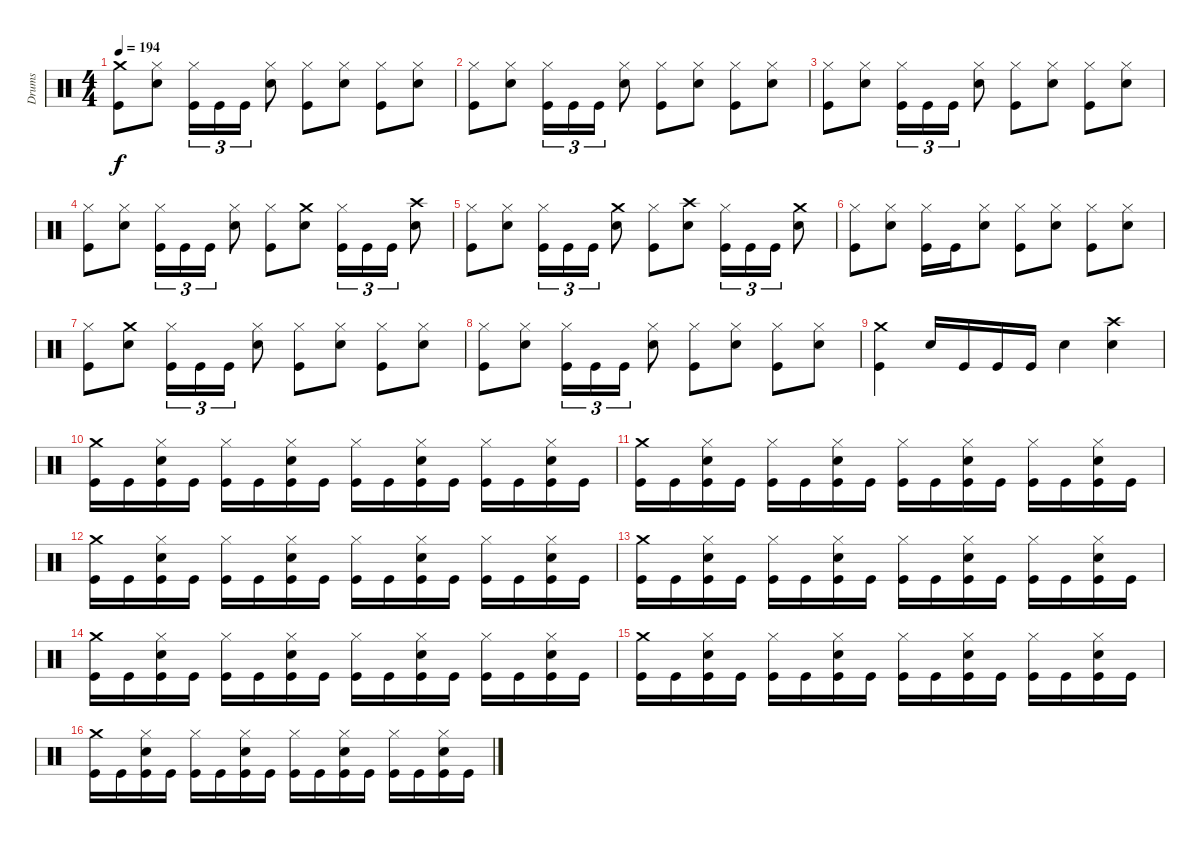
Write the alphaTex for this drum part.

\track ("Drums" "Drums") {instrument percussion}
\staff {score}
\articulation defaults
\ts (4 4)
\tempo 194
\clef neutral
\ks c
("Crash medium (hit)" "Kick (hit)").8{dy f} ("Hi-Hat (closed)" "Snare (hit) 2").8 ("Hi-Hat (closed)" "Kick (hit)").16{tu (3 2)} "Kick (hit)".16{tu (3 2)} "Kick (hit)".16{tu (3 2)} ("Hi-Hat (closed)" "Snare (hit) 2").8 ("Hi-Hat (closed)" "Kick (hit)").8 ("Hi-Hat (closed)" "Snare (hit) 2").8 ("Hi-Hat (closed)" "Kick (hit)").8 ("Hi-Hat (closed)" "Snare (hit) 2").8 |
("Hi-Hat (closed)" "Kick (hit)").8 ("Hi-Hat (closed)" "Snare (hit) 2").8 ("Hi-Hat (closed)" "Kick (hit)").16{tu (3 2)} "Kick (hit)".16{tu (3 2)} "Kick (hit)".16{tu (3 2)} ("Hi-Hat (closed)" "Snare (hit) 2").8 ("Hi-Hat (closed)" "Kick (hit)").8 ("Hi-Hat (closed)" "Snare (hit) 2").8 ("Hi-Hat (closed)" "Kick (hit)").8 ("Hi-Hat (closed)" "Snare (hit) 2").8 |
("Hi-Hat (closed)" "Kick (hit)").8 ("Hi-Hat (closed)" "Snare (hit) 2").8 ("Hi-Hat (closed)" "Kick (hit)").16{tu (3 2)} "Kick (hit)".16{tu (3 2)} "Kick (hit)".16{tu (3 2)} ("Hi-Hat (closed)" "Snare (hit) 2").8 ("Hi-Hat (closed)" "Kick (hit)").8 ("Hi-Hat (closed)" "Snare (hit) 2").8 ("Hi-Hat (closed)" "Kick (hit)").8 ("Hi-Hat (closed)" "Snare (hit) 2").8 |
("Hi-Hat (closed)" "Kick (hit)").8 ("Hi-Hat (closed)" "Snare (hit) 2").8 ("Hi-Hat (closed)" "Kick (hit)").16{tu (3 2)} "Kick (hit)".16{tu (3 2)} "Kick (hit)".16{tu (3 2)} ("Hi-Hat (closed)" "Snare (hit) 2").8 ("Hi-Hat (closed)" "Kick (hit)").8 ("Crash medium (hit)" "Snare (hit) 2").8 ("Hi-Hat (closed)" "Kick (hit)").16{tu (3 2)} "Kick (hit)".16{tu (3 2)} "Kick (hit)".16{tu (3 2)} ("Crash high (hit)" "Snare (hit) 2").8 |
("Hi-Hat (closed)" "Kick (hit)").8 ("Hi-Hat (closed)" "Snare (hit) 2").8 ("Hi-Hat (closed)" "Kick (hit)").16{tu (3 2)} "Kick (hit)".16{tu (3 2)} "Kick (hit)".16{tu (3 2)} ("Crash medium (hit)" "Snare (hit) 2").8 ("Hi-Hat (closed)" "Kick (hit)").8 ("Crash high (hit)" "Snare (hit) 2").8 ("Hi-Hat (closed)" "Kick (hit)").16{tu (3 2)} "Kick (hit)".16{tu (3 2)} "Kick (hit)".16{tu (3 2)} ("Crash medium (hit)" "Snare (hit) 2").8 |
("Hi-Hat (closed)" "Kick (hit)").8 ("Hi-Hat (closed)" "Snare (hit) 2").8 ("Hi-Hat (closed)" "Kick (hit)").16 "Kick (hit)".16 ("Hi-Hat (closed)" "Snare (hit) 2").8 ("Hi-Hat (closed)" "Kick (hit)").8 ("Hi-Hat (closed)" "Snare (hit) 2").8 ("Hi-Hat (closed)" "Kick (hit)").8 ("Hi-Hat (closed)" "Snare (hit) 2").8 |
("Hi-Hat (closed)" "Kick (hit)").8 ("Crash medium (hit)" "Snare (hit) 2").8 ("Hi-Hat (closed)" "Kick (hit)").16{tu (3 2)} "Kick (hit)".16{tu (3 2)} "Kick (hit)".16{tu (3 2)} ("Hi-Hat (closed)" "Snare (hit) 2").8 ("Hi-Hat (closed)" "Kick (hit)").8 ("Hi-Hat (closed)" "Snare (hit) 2").8 ("Hi-Hat (closed)" "Kick (hit)").8 ("Hi-Hat (closed)" "Snare (hit) 2").8 |
("Hi-Hat (closed)" "Kick (hit)").8 ("Hi-Hat (closed)" "Snare (hit) 2").8 ("Hi-Hat (closed)" "Kick (hit)").16{tu (3 2)} "Kick (hit)".16{tu (3 2)} "Kick (hit)".16{tu (3 2)} ("Hi-Hat (closed)" "Snare (hit) 2").8 ("Hi-Hat (closed)" "Kick (hit)").8 ("Hi-Hat (closed)" "Snare (hit) 2").8 ("Hi-Hat (closed)" "Kick (hit)").8 ("Hi-Hat (closed)" "Snare (hit) 2").8 |
("Crash medium (hit)" "Kick (hit)").4 "Snare (hit) 2".16 "Kick (hit)".16 "Kick (hit)".16 "Kick (hit)".16 "Snare (hit) 2".4 ("Crash high (hit)" "Snare (hit) 2").4 |
("Crash medium (hit)" "Kick (hit)").16 "Kick (hit)".16 ("Hi-Hat (closed)" "Snare (hit) 2" "Kick (hit)").16 "Kick (hit)".16 ("Hi-Hat (closed)" "Kick (hit)").16 "Kick (hit)".16 ("Hi-Hat (closed)" "Snare (hit) 2" "Kick (hit)").16 "Kick (hit)".16 ("Hi-Hat (closed)" "Kick (hit)").16 "Kick (hit)".16 ("Hi-Hat (closed)" "Snare (hit) 2" "Kick (hit)").16 "Kick (hit)".16 ("Hi-Hat (closed)" "Kick (hit)").16 "Kick (hit)".16 ("Hi-Hat (closed)" "Snare (hit) 2" "Kick (hit)").16 "Kick (hit)".16 |
("Crash medium (hit)" "Kick (hit)").16 "Kick (hit)".16 ("Hi-Hat (closed)" "Snare (hit) 2" "Kick (hit)").16 "Kick (hit)".16 ("Hi-Hat (closed)" "Kick (hit)").16 "Kick (hit)".16 ("Hi-Hat (closed)" "Snare (hit) 2" "Kick (hit)").16 "Kick (hit)".16 ("Hi-Hat (closed)" "Kick (hit)").16 "Kick (hit)".16 ("Hi-Hat (closed)" "Snare (hit) 2" "Kick (hit)").16 "Kick (hit)".16 ("Hi-Hat (closed)" "Kick (hit)").16 "Kick (hit)".16 ("Hi-Hat (closed)" "Snare (hit) 2" "Kick (hit)").16 "Kick (hit)".16 |
("Crash medium (hit)" "Kick (hit)").16 "Kick (hit)".16 ("Hi-Hat (closed)" "Snare (hit) 2" "Kick (hit)").16 "Kick (hit)".16 ("Hi-Hat (closed)" "Kick (hit)").16 "Kick (hit)".16 ("Hi-Hat (closed)" "Snare (hit) 2" "Kick (hit)").16 "Kick (hit)".16 ("Hi-Hat (closed)" "Kick (hit)").16 "Kick (hit)".16 ("Hi-Hat (closed)" "Snare (hit) 2" "Kick (hit)").16 "Kick (hit)".16 ("Hi-Hat (closed)" "Kick (hit)").16 "Kick (hit)".16 ("Hi-Hat (closed)" "Snare (hit) 2" "Kick (hit)").16 "Kick (hit)".16 |
("Crash medium (hit)" "Kick (hit)").16 "Kick (hit)".16 ("Hi-Hat (closed)" "Snare (hit) 2" "Kick (hit)").16 "Kick (hit)".16 ("Hi-Hat (closed)" "Kick (hit)").16 "Kick (hit)".16 ("Hi-Hat (closed)" "Snare (hit) 2" "Kick (hit)").16 "Kick (hit)".16 ("Hi-Hat (closed)" "Kick (hit)").16 "Kick (hit)".16 ("Hi-Hat (closed)" "Snare (hit) 2" "Kick (hit)").16 "Kick (hit)".16 ("Hi-Hat (closed)" "Kick (hit)").16 "Kick (hit)".16 ("Hi-Hat (closed)" "Snare (hit) 2" "Kick (hit)").16 "Kick (hit)".16 |
("Crash medium (hit)" "Kick (hit)").16 "Kick (hit)".16 ("Hi-Hat (closed)" "Snare (hit) 2" "Kick (hit)").16 "Kick (hit)".16 ("Hi-Hat (closed)" "Kick (hit)").16 "Kick (hit)".16 ("Hi-Hat (closed)" "Snare (hit) 2" "Kick (hit)").16 "Kick (hit)".16 ("Hi-Hat (closed)" "Kick (hit)").16 "Kick (hit)".16 ("Hi-Hat (closed)" "Snare (hit) 2" "Kick (hit)").16 "Kick (hit)".16 ("Hi-Hat (closed)" "Kick (hit)").16 "Kick (hit)".16 ("Hi-Hat (closed)" "Snare (hit) 2" "Kick (hit)").16 "Kick (hit)".16 |
("Crash medium (hit)" "Kick (hit)").16 "Kick (hit)".16 ("Hi-Hat (closed)" "Snare (hit) 2" "Kick (hit)").16 "Kick (hit)".16 ("Hi-Hat (closed)" "Kick (hit)").16 "Kick (hit)".16 ("Hi-Hat (closed)" "Snare (hit) 2" "Kick (hit)").16 "Kick (hit)".16 ("Hi-Hat (closed)" "Kick (hit)").16 "Kick (hit)".16 ("Hi-Hat (closed)" "Snare (hit) 2" "Kick (hit)").16 "Kick (hit)".16 ("Hi-Hat (closed)" "Kick (hit)").16 "Kick (hit)".16 ("Hi-Hat (closed)" "Snare (hit) 2" "Kick (hit)").16 "Kick (hit)".16 |
("Crash medium (hit)" "Kick (hit)").16 "Kick (hit)".16 ("Hi-Hat (closed)" "Snare (hit) 2" "Kick (hit)").16 "Kick (hit)".16 ("Hi-Hat (closed)" "Kick (hit)").16 "Kick (hit)".16 ("Hi-Hat (closed)" "Snare (hit) 2" "Kick (hit)").16 "Kick (hit)".16 ("Hi-Hat (closed)" "Kick (hit)").16 "Kick (hit)".16 ("Hi-Hat (closed)" "Snare (hit) 2" "Kick (hit)").16 "Kick (hit)".16 ("Hi-Hat (closed)" "Kick (hit)").16 "Kick (hit)".16 ("Hi-Hat (closed)" "Snare (hit) 2" "Kick (hit)").16 "Kick (hit)".16
